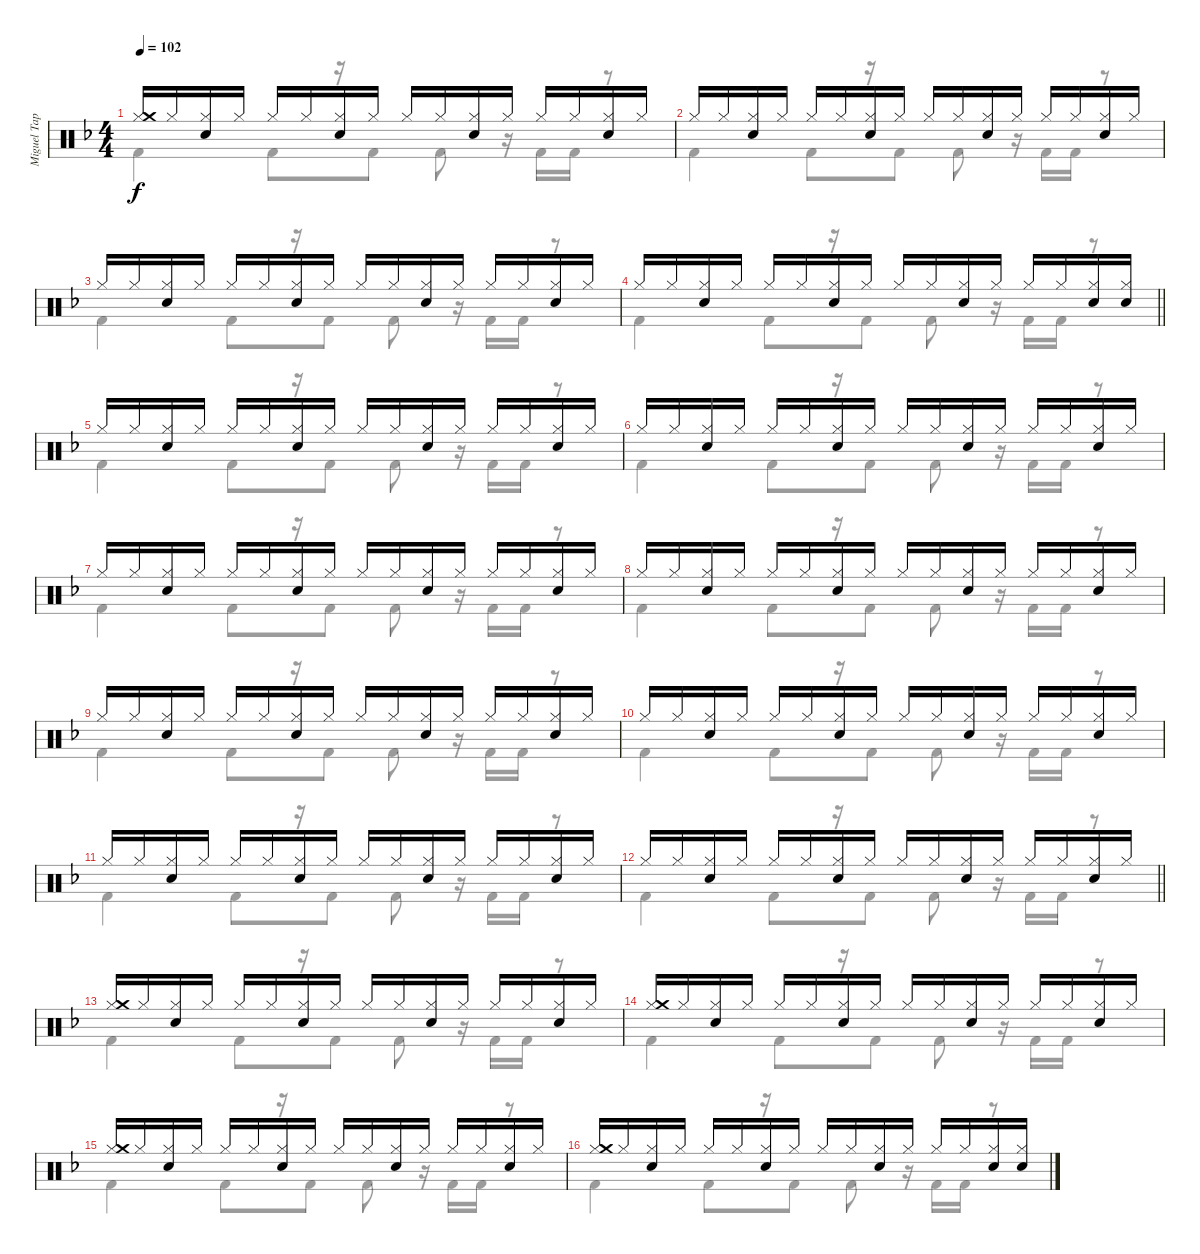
\track ("Miguel Tapia (Batería)" "Miguel Tap") {instrument percussion}
\staff {score}
\articulation defaults
\voice
\ts (4 4)
\tempo 102
\clef neutral
\ks f
("Hi-Hat (closed)" "Crash medium (hit)").16{dy f} "Hi-Hat (closed)".16 ("Hi-Hat (closed)" "Snare (hit) 2").16 "Hi-Hat (closed)".16 "Hi-Hat (closed)".16 "Hi-Hat (closed)".16 ("Hi-Hat (closed)" "Snare (hit) 2").16 "Hi-Hat (closed)".16 "Hi-Hat (closed)".16 "Hi-Hat (closed)".16 ("Hi-Hat (closed)" "Snare (hit) 2").16 "Hi-Hat (closed)".16 "Hi-Hat (closed)".16 "Hi-Hat (closed)".16 ("Hi-Hat (closed)" "Snare (hit) 2").16 "Hi-Hat (closed)".16 |
"Hi-Hat (closed)".16 "Hi-Hat (closed)".16 ("Hi-Hat (closed)" "Snare (hit) 2").16 "Hi-Hat (closed)".16 "Hi-Hat (closed)".16 "Hi-Hat (closed)".16 ("Hi-Hat (closed)" "Snare (hit) 2").16 "Hi-Hat (closed)".16 "Hi-Hat (closed)".16 "Hi-Hat (closed)".16 ("Hi-Hat (closed)" "Snare (hit) 2").16 "Hi-Hat (closed)".16 "Hi-Hat (closed)".16 "Hi-Hat (closed)".16 ("Hi-Hat (closed)" "Snare (hit) 2").16 "Hi-Hat (closed)".16 |
"Hi-Hat (closed)".16 "Hi-Hat (closed)".16 ("Hi-Hat (closed)" "Snare (hit) 2").16 "Hi-Hat (closed)".16 "Hi-Hat (closed)".16 "Hi-Hat (closed)".16 ("Hi-Hat (closed)" "Snare (hit) 2").16 "Hi-Hat (closed)".16 "Hi-Hat (closed)".16 "Hi-Hat (closed)".16 ("Hi-Hat (closed)" "Snare (hit) 2").16 "Hi-Hat (closed)".16 "Hi-Hat (closed)".16 "Hi-Hat (closed)".16 ("Hi-Hat (closed)" "Snare (hit) 2").16 "Hi-Hat (closed)".16 |
\barLineRight lightlight "Hi-Hat (closed)".16 "Hi-Hat (closed)".16
("Hi-Hat (closed)" "Snare (hit) 2").16 "Hi-Hat (closed)".16 "Hi-Hat (closed)".16 "Hi-Hat (closed)".16 ("Hi-Hat (closed)" "Snare (hit) 2").16 "Hi-Hat (closed)".16 "Hi-Hat (closed)".16 "Hi-Hat (closed)".16 ("Hi-Hat (closed)" "Snare (hit) 2").16 "Hi-Hat (closed)".16 "Hi-Hat (closed)".16 "Hi-Hat (closed)".16 ("Hi-Hat (closed)" "Snare (hit) 2").16 ("Hi-Hat (closed)" "Snare (hit) 2").16 |
"Hi-Hat (closed)".16 "Hi-Hat (closed)".16 ("Hi-Hat (closed)" "Snare (hit) 2").16 "Hi-Hat (closed)".16 "Hi-Hat (closed)".16 "Hi-Hat (closed)".16 ("Hi-Hat (closed)" "Snare (hit) 2").16 "Hi-Hat (closed)".16 "Hi-Hat (closed)".16 "Hi-Hat (closed)".16 ("Hi-Hat (closed)" "Snare (hit) 2").16 "Hi-Hat (closed)".16 "Hi-Hat (closed)".16 "Hi-Hat (closed)".16 ("Hi-Hat (closed)" "Snare (hit) 2").16 "Hi-Hat (closed)".16 |
"Hi-Hat (closed)".16 "Hi-Hat (closed)".16 ("Hi-Hat (closed)" "Snare (hit) 2").16 "Hi-Hat (closed)".16 "Hi-Hat (closed)".16 "Hi-Hat (closed)".16 ("Hi-Hat (closed)" "Snare (hit) 2").16 "Hi-Hat (closed)".16 "Hi-Hat (closed)".16 "Hi-Hat (closed)".16 ("Hi-Hat (closed)" "Snare (hit) 2").16 "Hi-Hat (closed)".16 "Hi-Hat (closed)".16 "Hi-Hat (closed)".16 ("Hi-Hat (closed)" "Snare (hit) 2").16 "Hi-Hat (closed)".16 |
"Hi-Hat (closed)".16 "Hi-Hat (closed)".16 ("Hi-Hat (closed)" "Snare (hit) 2").16 "Hi-Hat (closed)".16 "Hi-Hat (closed)".16 "Hi-Hat (closed)".16 ("Hi-Hat (closed)" "Snare (hit) 2").16 "Hi-Hat (closed)".16 "Hi-Hat (closed)".16 "Hi-Hat (closed)".16 ("Hi-Hat (closed)" "Snare (hit) 2").16 "Hi-Hat (closed)".16 "Hi-Hat (closed)".16 "Hi-Hat (closed)".16 ("Hi-Hat (closed)" "Snare (hit) 2").16 "Hi-Hat (closed)".16 |
"Hi-Hat (closed)".16 "Hi-Hat (closed)".16 ("Hi-Hat (closed)" "Snare (hit) 2").16 "Hi-Hat (closed)".16 "Hi-Hat (closed)".16 "Hi-Hat (closed)".16 ("Hi-Hat (closed)" "Snare (hit) 2").16 "Hi-Hat (closed)".16 "Hi-Hat (closed)".16 "Hi-Hat (closed)".16 ("Hi-Hat (closed)" "Snare (hit) 2").16 "Hi-Hat (closed)".16 "Hi-Hat (closed)".16 "Hi-Hat (closed)".16 ("Hi-Hat (closed)" "Snare (hit) 2").16 "Hi-Hat (closed)".16 |
"Hi-Hat (closed)".16 "Hi-Hat (closed)".16 ("Hi-Hat (closed)" "Snare (hit) 2").16 "Hi-Hat (closed)".16 "Hi-Hat (closed)".16 "Hi-Hat (closed)".16 ("Hi-Hat (closed)" "Snare (hit) 2").16 "Hi-Hat (closed)".16 "Hi-Hat (closed)".16 "Hi-Hat (closed)".16 ("Hi-Hat (closed)" "Snare (hit) 2").16 "Hi-Hat (closed)".16 "Hi-Hat (closed)".16 "Hi-Hat (closed)".16 ("Hi-Hat (closed)" "Snare (hit) 2").16 "Hi-Hat (closed)".16 |
"Hi-Hat (closed)".16 "Hi-Hat (closed)".16 ("Hi-Hat (closed)" "Snare (hit) 2").16 "Hi-Hat (closed)".16 "Hi-Hat (closed)".16 "Hi-Hat (closed)".16 ("Hi-Hat (closed)" "Snare (hit) 2").16 "Hi-Hat (closed)".16 "Hi-Hat (closed)".16 "Hi-Hat (closed)".16 ("Hi-Hat (closed)" "Snare (hit) 2").16 "Hi-Hat (closed)".16 "Hi-Hat (closed)".16 "Hi-Hat (closed)".16 ("Hi-Hat (closed)" "Snare (hit) 2").16 "Hi-Hat (closed)".16 |
"Hi-Hat (closed)".16 "Hi-Hat (closed)".16 ("Hi-Hat (closed)" "Snare (hit) 2").16 "Hi-Hat (closed)".16 "Hi-Hat (closed)".16 "Hi-Hat (closed)".16 ("Hi-Hat (closed)" "Snare (hit) 2").16 "Hi-Hat (closed)".16 "Hi-Hat (closed)".16 "Hi-Hat (closed)".16 ("Hi-Hat (closed)" "Snare (hit) 2").16 "Hi-Hat (closed)".16 "Hi-Hat (closed)".16 "Hi-Hat (closed)".16 ("Hi-Hat (closed)" "Snare (hit) 2").16 "Hi-Hat (closed)".16 |
\barLineRight lightlight "Hi-Hat (closed)".16 "Hi-Hat (closed)".16
("Hi-Hat (closed)" "Snare (hit) 2").16 "Hi-Hat (closed)".16 "Hi-Hat (closed)".16 "Hi-Hat (closed)".16 ("Hi-Hat (closed)" "Snare (hit) 2").16 "Hi-Hat (closed)".16 "Hi-Hat (closed)".16 "Hi-Hat (closed)".16 ("Hi-Hat (closed)" "Snare (hit) 2").16 "Hi-Hat (closed)".16 "Hi-Hat (closed)".16 "Hi-Hat (closed)".16 ("Hi-Hat (closed)" "Snare (hit) 2").16 "Hi-Hat (closed)".16 |
("Hi-Hat (closed)" "Crash medium (hit)").16 "Hi-Hat (closed)".16 ("Hi-Hat (closed)" "Snare (hit) 2").16 "Hi-Hat (closed)".16 "Hi-Hat (closed)".16 "Hi-Hat (closed)".16 ("Hi-Hat (closed)" "Snare (hit) 2").16 "Hi-Hat (closed)".16 "Hi-Hat (closed)".16 "Hi-Hat (closed)".16 ("Hi-Hat (closed)" "Snare (hit) 2").16 "Hi-Hat (closed)".16 "Hi-Hat (closed)".16 "Hi-Hat (closed)".16 ("Hi-Hat (closed)" "Snare (hit) 2").16 "Hi-Hat (closed)".16 |
("Hi-Hat (closed)" "Crash medium (hit)").16 "Hi-Hat (closed)".16 ("Hi-Hat (closed)" "Snare (hit) 2").16 "Hi-Hat (closed)".16 "Hi-Hat (closed)".16 "Hi-Hat (closed)".16 ("Hi-Hat (closed)" "Snare (hit) 2").16 "Hi-Hat (closed)".16 "Hi-Hat (closed)".16 "Hi-Hat (closed)".16 ("Hi-Hat (closed)" "Snare (hit) 2").16 "Hi-Hat (closed)".16 "Hi-Hat (closed)".16 "Hi-Hat (closed)".16 ("Hi-Hat (closed)" "Snare (hit) 2").16 "Hi-Hat (closed)".16 |
("Hi-Hat (closed)" "Crash medium (hit)").16 "Hi-Hat (closed)".16 ("Hi-Hat (closed)" "Snare (hit) 2").16 "Hi-Hat (closed)".16 "Hi-Hat (closed)".16 "Hi-Hat (closed)".16 ("Hi-Hat (closed)" "Snare (hit) 2").16 "Hi-Hat (closed)".16 "Hi-Hat (closed)".16 "Hi-Hat (closed)".16 ("Hi-Hat (closed)" "Snare (hit) 2").16 "Hi-Hat (closed)".16 "Hi-Hat (closed)".16 "Hi-Hat (closed)".16 ("Hi-Hat (closed)" "Snare (hit) 2").16 "Hi-Hat (closed)".16 |
("Hi-Hat (closed)" "Crash medium (hit)").16 "Hi-Hat (closed)".16 ("Hi-Hat (closed)" "Snare (hit) 2").16 "Hi-Hat (closed)".16 "Hi-Hat (closed)".16 "Hi-Hat (closed)".16 ("Hi-Hat (closed)" "Snare (hit) 2").16 "Hi-Hat (closed)".16 "Hi-Hat (closed)".16 "Hi-Hat (closed)".16 ("Hi-Hat (closed)" "Snare (hit) 2").16 "Hi-Hat (closed)".16 "Hi-Hat (closed)".16 "Hi-Hat (closed)".16 ("Hi-Hat (closed)" "Snare (hit) 2").16 ("Hi-Hat (closed)" "Snare (hit) 2").16
\voice
\clef neutral
\ottava regular
\simile none
\ks f "Kick (hit) 2".4{dy f} "Kick (hit) 2".8
r.16 "Kick (hit) 2".8 "Kick (hit) 2".8 r.16 "Kick (hit) 2".16 "Kick (hit) 2".16 r.8 |
"Kick (hit) 2".4 "Kick (hit) 2".8 r.16 "Kick (hit) 2".8 "Kick (hit) 2".8 r.16 "Kick (hit) 2".16 "Kick (hit) 2".16 r.8 |
"Kick (hit) 2".4 "Kick (hit) 2".8 r.16 "Kick (hit) 2".8 "Kick (hit) 2".8 r.16 "Kick (hit) 2".16 "Kick (hit) 2".16 r.8 |
\barLineRight lightlight "Kick (hit) 2".4 "Kick (hit) 2".8
r.16 "Kick (hit) 2".8 "Kick (hit) 2".8 r.16 "Kick (hit) 2".16 "Kick (hit) 2".16 r.8 |
"Kick (hit) 2".4 "Kick (hit) 2".8 r.16 "Kick (hit) 2".8 "Kick (hit) 2".8 r.16 "Kick (hit) 2".16 "Kick (hit) 2".16 r.8 |
"Kick (hit) 2".4 "Kick (hit) 2".8 r.16 "Kick (hit) 2".8 "Kick (hit) 2".8 r.16 "Kick (hit) 2".16 "Kick (hit) 2".16 r.8 |
"Kick (hit) 2".4 "Kick (hit) 2".8 r.16 "Kick (hit) 2".8 "Kick (hit) 2".8 r.16 "Kick (hit) 2".16 "Kick (hit) 2".16 r.8 |
"Kick (hit) 2".4 "Kick (hit) 2".8 r.16 "Kick (hit) 2".8 "Kick (hit) 2".8 r.16 "Kick (hit) 2".16 "Kick (hit) 2".16 r.8 |
"Kick (hit) 2".4 "Kick (hit) 2".8 r.16 "Kick (hit) 2".8 "Kick (hit) 2".8 r.16 "Kick (hit) 2".16 "Kick (hit) 2".16 r.8 |
"Kick (hit) 2".4 "Kick (hit) 2".8 r.16 "Kick (hit) 2".8 "Kick (hit) 2".8 r.16 "Kick (hit) 2".16 "Kick (hit) 2".16 r.8 |
"Kick (hit) 2".4 "Kick (hit) 2".8 r.16 "Kick (hit) 2".8 "Kick (hit) 2".8 r.16 "Kick (hit) 2".16 "Kick (hit) 2".16 r.8 |
\barLineRight lightlight "Kick (hit) 2".4 "Kick (hit) 2".8
r.16 "Kick (hit) 2".8 "Kick (hit) 2".8 r.16 "Kick (hit) 2".16 "Kick (hit) 2".16 r.8 |
"Kick (hit) 2".4 "Kick (hit) 2".8 r.16 "Kick (hit) 2".8 "Kick (hit) 2".8 r.16 "Kick (hit) 2".16 "Kick (hit) 2".16 r.8 |
"Kick (hit) 2".4 "Kick (hit) 2".8 r.16 "Kick (hit) 2".8 "Kick (hit) 2".8 r.16 "Kick (hit) 2".16 "Kick (hit) 2".16 r.8 |
"Kick (hit) 2".4 "Kick (hit) 2".8 r.16 "Kick (hit) 2".8 "Kick (hit) 2".8 r.16 "Kick (hit) 2".16 "Kick (hit) 2".16 r.8 |
"Kick (hit) 2".4 "Kick (hit) 2".8 r.16 "Kick (hit) 2".8 "Kick (hit) 2".8 r.16 "Kick (hit) 2".16 "Kick (hit) 2".16 r.8
